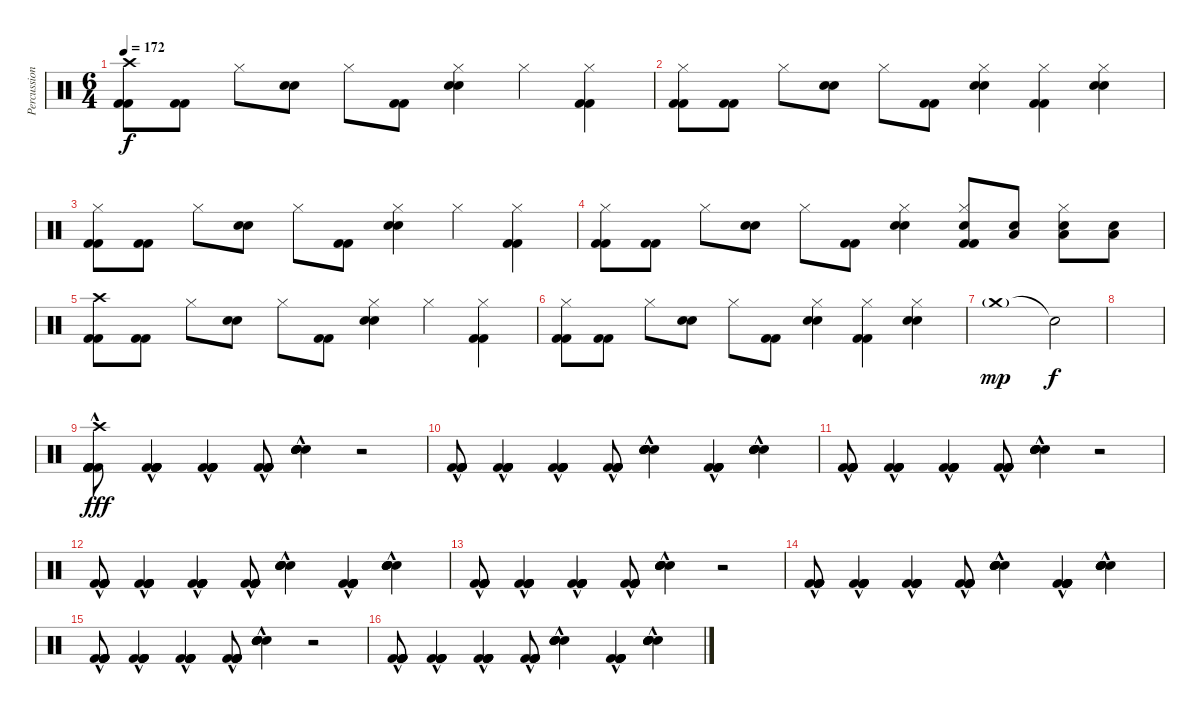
\track ("Percussion" "Percussion") {instrument percussion}
\staff {score}
\articulation defaults
\ts (6 4)
\tempo 172
\clef neutral
\ks c
("Crash high (hit)" "Kick (hit) 2" "Kick (hit) 2").8{dy f} ("Kick (hit) 2" "Kick (hit) 2").8 "Hi-Hat (closed)".8 ("Electric Snare (hit)" "Electric Snare (hit)").8 "Hi-Hat (closed)".8 ("Kick (hit) 2" "Kick (hit) 2").8 ("Hi-Hat (closed)" "Electric Snare (hit)" "Electric Snare (hit)").4 "Hi-Hat (closed)".4 ("Hi-Hat (closed)" "Kick (hit) 2" "Kick (hit) 2").4 |
("Hi-Hat (closed)" "Kick (hit) 2" "Kick (hit) 2").8 ("Kick (hit) 2" "Kick (hit) 2").8 "Hi-Hat (closed)".8 ("Electric Snare (hit)" "Electric Snare (hit)").8 "Hi-Hat (closed)".8 ("Kick (hit) 2" "Kick (hit) 2").8 ("Hi-Hat (closed)" "Electric Snare (hit)" "Electric Snare (hit)").4 ("Hi-Hat (closed)" "Kick (hit) 2" "Kick (hit) 2").4 ("Hi-Hat (closed)" "Electric Snare (hit)" "Electric Snare (hit)").4 |
("Hi-Hat (closed)" "Kick (hit) 2" "Kick (hit) 2").8 ("Kick (hit) 2" "Kick (hit) 2").8 "Hi-Hat (closed)".8 ("Electric Snare (hit)" "Electric Snare (hit)").8 "Hi-Hat (closed)".8 ("Kick (hit) 2" "Kick (hit) 2").8 ("Hi-Hat (closed)" "Electric Snare (hit)" "Electric Snare (hit)").4 "Hi-Hat (closed)".4 ("Hi-Hat (closed)" "Kick (hit) 2" "Kick (hit) 2").4 |
("Hi-Hat (closed)" "Kick (hit) 2" "Kick (hit) 2").8 ("Kick (hit) 2" "Kick (hit) 2").8 "Hi-Hat (closed)".8 ("Electric Snare (hit)" "Electric Snare (hit)").8 "Hi-Hat (closed)".8 ("Kick (hit) 2" "Kick (hit) 2").8 ("Hi-Hat (closed)" "Electric Snare (hit)" "Electric Snare (hit)").4 ("Hi-Hat (closed)" "Electric Snare (hit)" "Kick (hit) 2" "Kick (hit) 2").8 ("Electric Snare (hit)" "Low Tom (hit)").8 ("Hi-Hat (closed)" "Electric Snare (hit)" "Low Tom (hit)").8 ("Electric Snare (hit)" "Low Tom (hit)").8 |
("Crash high (hit)" "Kick (hit) 2" "Kick (hit) 2").8{volume 16} ("Kick (hit) 2" "Kick (hit) 2").8 "Hi-Hat (closed)".8 ("Electric Snare (hit)" "Electric Snare (hit)").8 "Hi-Hat (closed)".8 ("Kick (hit) 2" "Kick (hit) 2").8 ("Hi-Hat (closed)" "Electric Snare (hit)" "Electric Snare (hit)").4 "Hi-Hat (closed)".4 ("Hi-Hat (closed)" "Kick (hit) 2" "Kick (hit) 2").4 |
("Hi-Hat (closed)" "Kick (hit) 2" "Kick (hit) 2").8 ("Kick (hit) 2" "Kick (hit) 2").8 "Hi-Hat (closed)".8 ("Electric Snare (hit)" "Electric Snare (hit)").8 "Hi-Hat (closed)".8 ("Kick (hit) 2" "Kick (hit) 2").8 ("Hi-Hat (closed)" "Electric Snare (hit)" "Electric Snare (hit)").4 ("Hi-Hat (closed)" "Kick (hit) 2" "Kick (hit) 2").4 ("Hi-Hat (closed)" "Electric Snare (hit)" "Electric Snare (hit)").4 |
"Crash medium (hit)"{g}.1{dy mp} "Snare (hit)"{t}.2{dy f} |
|
("Crash high (hit)" "Kick (hit) 2"{hac} "Kick (hit) 2" "Kick (hit) 2" "Kick (hit) 2" "Kick (hit) 2").8{dy fff} ("Kick (hit) 2"{hac} "Kick (hit) 2" "Kick (hit) 2" "Kick (hit) 2" "Kick (hit) 2").4 ("Kick (hit) 2"{hac} "Kick (hit) 2" "Kick (hit) 2" "Kick (hit) 2" "Kick (hit) 2").4 ("Kick (hit) 2"{hac} "Kick (hit) 2" "Kick (hit) 2" "Kick (hit) 2" "Kick (hit) 2").8 ("Electric Snare (hit)"{hac} "Electric Snare (hit)" "Electric Snare (hit)" "Electric Snare (hit)" "Electric Snare (hit)").4 r.2 |
("Kick (hit) 2"{hac} "Kick (hit) 2" "Kick (hit) 2" "Kick (hit) 2" "Kick (hit) 2").8 ("Kick (hit) 2"{hac} "Kick (hit) 2" "Kick (hit) 2" "Kick (hit) 2" "Kick (hit) 2").4 ("Kick (hit) 2"{hac} "Kick (hit) 2" "Kick (hit) 2" "Kick (hit) 2" "Kick (hit) 2").4 ("Kick (hit) 2"{hac} "Kick (hit) 2" "Kick (hit) 2" "Kick (hit) 2" "Kick (hit) 2").8 ("Electric Snare (hit)"{hac} "Electric Snare (hit)" "Electric Snare (hit)" "Electric Snare (hit)" "Electric Snare (hit)").4 ("Kick (hit) 2"{hac} "Kick (hit) 2" "Kick (hit) 2" "Kick (hit) 2" "Kick (hit) 2").4 ("Electric Snare (hit)"{hac} "Electric Snare (hit)" "Electric Snare (hit)" "Electric Snare (hit)" "Electric Snare (hit)").4 |
("Kick (hit) 2"{hac} "Kick (hit) 2" "Kick (hit) 2" "Kick (hit) 2" "Kick (hit) 2").8 ("Kick (hit) 2"{hac} "Kick (hit) 2" "Kick (hit) 2" "Kick (hit) 2" "Kick (hit) 2").4 ("Kick (hit) 2"{hac} "Kick (hit) 2" "Kick (hit) 2" "Kick (hit) 2" "Kick (hit) 2").4 ("Kick (hit) 2"{hac} "Kick (hit) 2" "Kick (hit) 2" "Kick (hit) 2" "Kick (hit) 2").8 ("Electric Snare (hit)"{hac} "Electric Snare (hit)" "Electric Snare (hit)" "Electric Snare (hit)" "Electric Snare (hit)").4 r.2 |
("Kick (hit) 2"{hac} "Kick (hit) 2" "Kick (hit) 2" "Kick (hit) 2" "Kick (hit) 2").8 ("Kick (hit) 2"{hac} "Kick (hit) 2" "Kick (hit) 2" "Kick (hit) 2" "Kick (hit) 2").4 ("Kick (hit) 2"{hac} "Kick (hit) 2" "Kick (hit) 2" "Kick (hit) 2" "Kick (hit) 2").4 ("Kick (hit) 2"{hac} "Kick (hit) 2" "Kick (hit) 2" "Kick (hit) 2" "Kick (hit) 2").8 ("Electric Snare (hit)"{hac} "Electric Snare (hit)" "Electric Snare (hit)" "Electric Snare (hit)" "Electric Snare (hit)").4 ("Kick (hit) 2"{hac} "Kick (hit) 2" "Kick (hit) 2" "Kick (hit) 2" "Kick (hit) 2").4 ("Electric Snare (hit)"{hac} "Electric Snare (hit)" "Electric Snare (hit)" "Electric Snare (hit)" "Electric Snare (hit)").4 |
("Kick (hit) 2"{hac} "Kick (hit) 2" "Kick (hit) 2" "Kick (hit) 2" "Kick (hit) 2").8 ("Kick (hit) 2"{hac} "Kick (hit) 2" "Kick (hit) 2" "Kick (hit) 2" "Kick (hit) 2").4 ("Kick (hit) 2"{hac} "Kick (hit) 2" "Kick (hit) 2" "Kick (hit) 2" "Kick (hit) 2").4 ("Kick (hit) 2"{hac} "Kick (hit) 2" "Kick (hit) 2" "Kick (hit) 2" "Kick (hit) 2").8 ("Electric Snare (hit)"{hac} "Electric Snare (hit)" "Electric Snare (hit)" "Electric Snare (hit)" "Electric Snare (hit)").4 r.2 |
("Kick (hit) 2"{hac} "Kick (hit) 2" "Kick (hit) 2" "Kick (hit) 2" "Kick (hit) 2").8 ("Kick (hit) 2"{hac} "Kick (hit) 2" "Kick (hit) 2" "Kick (hit) 2" "Kick (hit) 2").4 ("Kick (hit) 2"{hac} "Kick (hit) 2" "Kick (hit) 2" "Kick (hit) 2" "Kick (hit) 2").4 ("Kick (hit) 2"{hac} "Kick (hit) 2" "Kick (hit) 2" "Kick (hit) 2" "Kick (hit) 2").8 ("Electric Snare (hit)"{hac} "Electric Snare (hit)" "Electric Snare (hit)" "Electric Snare (hit)" "Electric Snare (hit)").4 ("Kick (hit) 2"{hac} "Kick (hit) 2" "Kick (hit) 2" "Kick (hit) 2" "Kick (hit) 2").4 ("Electric Snare (hit)"{hac} "Electric Snare (hit)" "Electric Snare (hit)" "Electric Snare (hit)" "Electric Snare (hit)").4 |
("Kick (hit) 2"{hac} "Kick (hit) 2" "Kick (hit) 2" "Kick (hit) 2" "Kick (hit) 2").8 ("Kick (hit) 2"{hac} "Kick (hit) 2" "Kick (hit) 2" "Kick (hit) 2" "Kick (hit) 2").4 ("Kick (hit) 2"{hac} "Kick (hit) 2" "Kick (hit) 2" "Kick (hit) 2" "Kick (hit) 2").4 ("Kick (hit) 2"{hac} "Kick (hit) 2" "Kick (hit) 2" "Kick (hit) 2" "Kick (hit) 2").8 ("Electric Snare (hit)"{hac} "Electric Snare (hit)" "Electric Snare (hit)" "Electric Snare (hit)" "Electric Snare (hit)").4 r.2 |
("Kick (hit) 2"{hac} "Kick (hit) 2" "Kick (hit) 2" "Kick (hit) 2" "Kick (hit) 2").8 ("Kick (hit) 2"{hac} "Kick (hit) 2" "Kick (hit) 2" "Kick (hit) 2" "Kick (hit) 2").4 ("Kick (hit) 2"{hac} "Kick (hit) 2" "Kick (hit) 2" "Kick (hit) 2" "Kick (hit) 2").4 ("Kick (hit) 2"{hac} "Kick (hit) 2" "Kick (hit) 2" "Kick (hit) 2" "Kick (hit) 2").8 ("Electric Snare (hit)"{hac} "Electric Snare (hit)" "Electric Snare (hit)" "Electric Snare (hit)" "Electric Snare (hit)").4 ("Kick (hit) 2"{hac} "Kick (hit) 2" "Kick (hit) 2" "Kick (hit) 2" "Kick (hit) 2").4 ("Electric Snare (hit)"{hac} "Electric Snare (hit)" "Electric Snare (hit)" "Electric Snare (hit)" "Electric Snare (hit)").4
